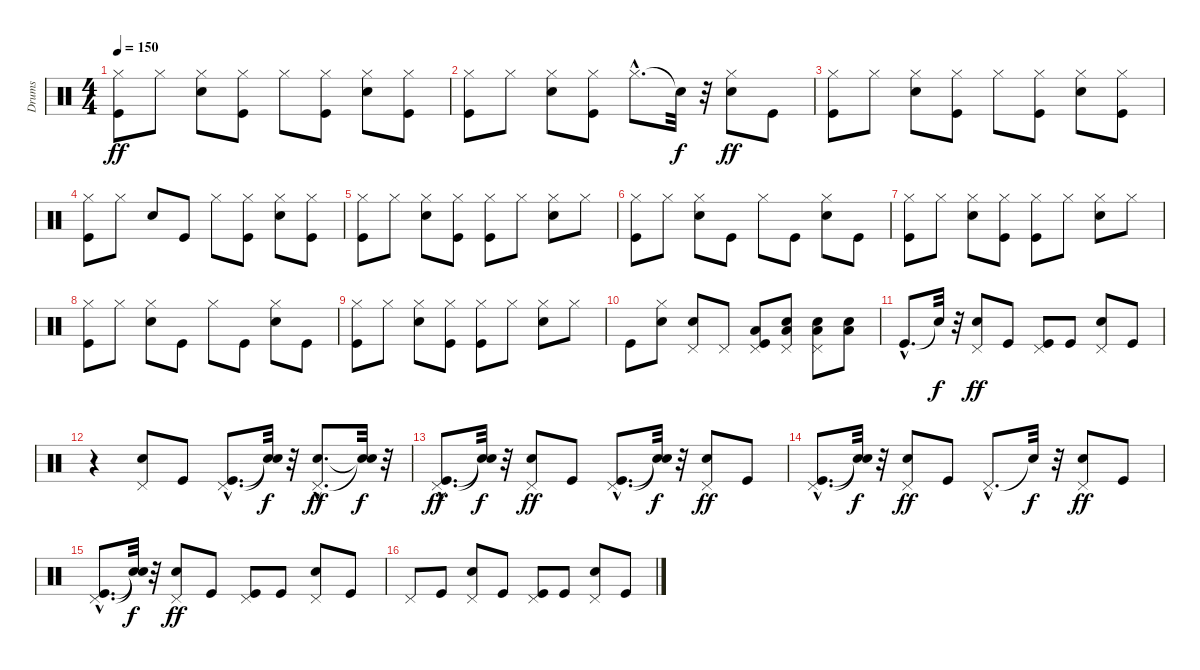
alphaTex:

\track ("Drums" "Drums") {instrument percussion}
\staff {score}
\articulation defaults
\ts (4 4)
\tempo 150
\clef neutral
\ks c
("Kick (hit)" "Hi-Hat (closed)").8{dy ff} "Hi-Hat (closed)".8 ("Snare (hit) 2" "Hi-Hat (closed)").8 ("Kick (hit)" "Hi-Hat (closed)").8 "Hi-Hat (closed)".8 ("Kick (hit)" "Hi-Hat (closed)").8 ("Snare (hit) 2" "Hi-Hat (closed)").8 ("Kick (hit)" "Hi-Hat (closed)").8 |
("Kick (hit)" "Hi-Hat (closed)").8 "Hi-Hat (closed)".8 ("Snare (hit) 2" "Hi-Hat (closed)").8 ("Kick (hit)" "Hi-Hat (closed)").8 "Hi-Hat (closed)"{hac}.8{d} "Snare (hit)"{t}.32{dy f} r.32 ("Snare (hit) 2" "Hi-Hat (closed)").8{dy ff} "Kick (hit)".8 |
("Kick (hit)" "Hi-Hat (closed)").8 "Hi-Hat (closed)".8 ("Snare (hit) 2" "Hi-Hat (closed)").8 ("Kick (hit)" "Hi-Hat (closed)").8 "Hi-Hat (closed)".8 ("Kick (hit)" "Hi-Hat (closed)").8 ("Snare (hit) 2" "Hi-Hat (closed)").8 ("Kick (hit)" "Hi-Hat (closed)").8 |
("Kick (hit)" "Hi-Hat (closed)").8 "Hi-Hat (closed)".8 "Snare (hit) 2".8 "Kick (hit)".8 "Hi-Hat (closed)".8 ("Kick (hit)" "Hi-Hat (closed)").8 ("Snare (hit) 2" "Hi-Hat (closed)").8 ("Kick (hit)" "Hi-Hat (closed)").8 |
("Kick (hit)" "Hi-Hat (closed)").8 "Hi-Hat (closed)".8 ("Snare (hit) 2" "Hi-Hat (closed)").8 ("Kick (hit)" "Hi-Hat (closed)").8 ("Kick (hit)" "Hi-Hat (closed)").8 "Hi-Hat (closed)".8 ("Snare (hit) 2" "Hi-Hat (closed)").8 "Hi-Hat (closed)".8 |
("Kick (hit)" "Hi-Hat (closed)").8 "Hi-Hat (closed)".8 ("Snare (hit) 2" "Hi-Hat (closed)").8 "Kick (hit)".8 "Hi-Hat (closed)".8 "Kick (hit)".8 ("Snare (hit) 2" "Hi-Hat (closed)").8 "Kick (hit)".8 |
("Kick (hit)" "Hi-Hat (closed)").8 "Hi-Hat (closed)".8 ("Snare (hit) 2" "Hi-Hat (closed)").8 ("Kick (hit)" "Hi-Hat (closed)").8 ("Kick (hit)" "Hi-Hat (closed)").8 "Hi-Hat (closed)".8 ("Snare (hit) 2" "Hi-Hat (closed)").8 "Hi-Hat (closed)".8 |
("Kick (hit)" "Hi-Hat (closed)").8 "Hi-Hat (closed)".8 ("Snare (hit) 2" "Hi-Hat (closed)").8 "Kick (hit)".8 "Hi-Hat (closed)".8 "Kick (hit)".8 ("Snare (hit) 2" "Hi-Hat (closed)").8 "Kick (hit)".8 |
("Kick (hit)" "Hi-Hat (closed)").8 "Hi-Hat (closed)".8 ("Snare (hit) 2" "Hi-Hat (closed)").8 ("Kick (hit)" "Hi-Hat (closed)").8 ("Kick (hit)" "Hi-Hat (closed)").8 "Hi-Hat (closed)".8 ("Snare (hit) 2" "Hi-Hat (closed)").8 "Hi-Hat (closed)".8 |
"Kick (hit)".8 ("Snare (hit) 2" "Hi-Hat (closed)").8 ("Snare (hit) 2" "Pedal Hi-Hat (hit)").8 "Pedal Hi-Hat (hit)".8 ("Kick (hit)" "Pedal Hi-Hat (hit)" "Low Tom (hit)").8 ("Snare (hit) 2" "Pedal Hi-Hat (hit)" "Low Tom (hit)").8 ("Snare (hit) 2" "Low Floor Tom (hit)" "Pedal Hi-Hat (hit)").8 ("Snare (hit) 2" "Low Floor Tom (hit)").8 |
"Kick (hit)"{hac}.8{d} "Snare (hit)"{t}.32{dy f} r.32 ("Snare (hit) 2" "Pedal Hi-Hat (hit)").8{dy ff} "Kick (hit)".8 ("Kick (hit)" "Pedal Hi-Hat (hit)").8 "Kick (hit)".8 ("Snare (hit) 2" "Pedal Hi-Hat (hit)").8 "Kick (hit)".8 |
r.4 ("Snare (hit) 2" "Pedal Hi-Hat (hit)").8 "Kick (hit)".8 ("Kick (hit)"{hac} "Pedal Hi-Hat (hit)"{hac}).8{d} ("Snare (hit)"{t} "Snare (hit)"{t}).32{dy f} r.32 ("Snare (hit) 2"{hac} "Pedal Hi-Hat (hit)"{hac}).8{d dy ff} ("Snare (hit)"{t} "Snare (hit)"{t}).32{dy f} r.32 |
("Kick (hit)"{hac} "Pedal Hi-Hat (hit)"{hac}).8{d dy ff} ("Snare (hit)"{t} "Snare (hit)"{t}).32{dy f} r.32 ("Snare (hit) 2" "Pedal Hi-Hat (hit)").8{dy ff} "Kick (hit)".8 ("Kick (hit)"{hac} "Pedal Hi-Hat (hit)"{hac}).8{d} ("Snare (hit)"{t} "Snare (hit)"{t}).32{dy f} r.32 ("Snare (hit) 2" "Pedal Hi-Hat (hit)").8{dy ff} "Kick (hit)".8 |
("Kick (hit)"{hac} "Pedal Hi-Hat (hit)"{hac}).8{d} ("Snare (hit)"{t} "Snare (hit)"{t}).32{dy f} r.32 ("Snare (hit) 2" "Pedal Hi-Hat (hit)").8{dy ff} "Kick (hit)".8 "Pedal Hi-Hat (hit)"{hac}.8{d} "Snare (hit)"{t}.32{dy f} r.32 ("Snare (hit) 2" "Pedal Hi-Hat (hit)").8{dy ff} "Kick (hit)".8 |
("Kick (hit)"{hac} "Pedal Hi-Hat (hit)"{hac}).8{d} ("Snare (hit)"{t} "Snare (hit)"{t}).32{dy f} r.32 ("Snare (hit) 2" "Pedal Hi-Hat (hit)").8{dy ff} "Kick (hit)".8 ("Kick (hit)" "Pedal Hi-Hat (hit)").8 "Kick (hit)".8 ("Snare (hit) 2" "Pedal Hi-Hat (hit)").8 "Kick (hit)".8 |
"Pedal Hi-Hat (hit)".8 "Kick (hit)".8 ("Snare (hit) 2" "Pedal Hi-Hat (hit)").8 "Kick (hit)".8 ("Kick (hit)" "Pedal Hi-Hat (hit)").8 "Kick (hit)".8 ("Snare (hit) 2" "Pedal Hi-Hat (hit)").8 "Kick (hit)".8
